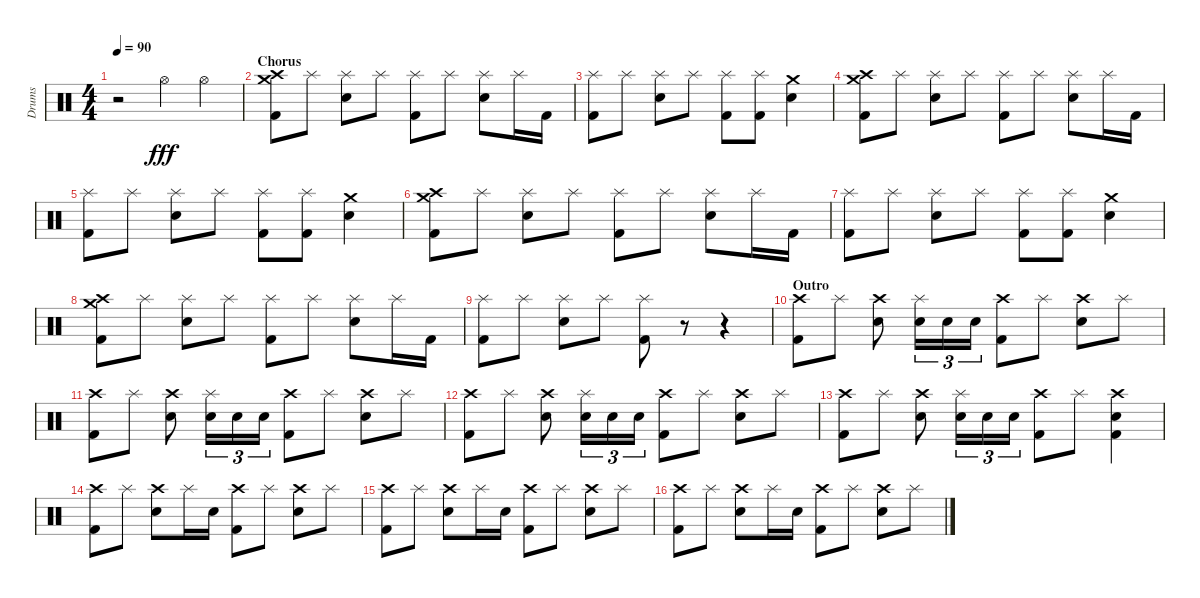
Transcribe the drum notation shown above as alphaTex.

\track ("Drums" "Drums") {instrument percussion}
\staff {score}
\articulation defaults
\ts (4 4)
\tempo 90
\clef neutral
\ks c
r.2{dy fff} "Hi-Hat (open)".4 "Hi-Hat (open)".4 |
\section ("" "Chorus")
("Crash high (hit)" "Crash medium (hit)" "Kick (hit) 2").8 "Splash (hit)".8 ("Splash (hit)" "Electric Snare (hit)").8 "Splash (hit)".8 ("Splash (hit)" "Kick (hit) 2").8 "Splash (hit)".8 ("Splash (hit)" "Electric Snare (hit)").8 "Splash (hit)".16 "Kick (hit) 2".16 |
("Splash (hit)" "Kick (hit) 2").8 "Splash (hit)".8 ("Splash (hit)" "Electric Snare (hit)").8 "Splash (hit)".8 ("Splash (hit)" "Kick (hit) 2").8 ("Splash (hit)" "Kick (hit) 2").8 ("Crash medium (hit)" "Electric Snare (hit)").4 |
("Crash high (hit)" "Crash medium (hit)" "Kick (hit) 2").8 "Splash (hit)".8 ("Splash (hit)" "Electric Snare (hit)").8 "Splash (hit)".8 ("Splash (hit)" "Kick (hit) 2").8 "Splash (hit)".8 ("Splash (hit)" "Electric Snare (hit)").8 "Splash (hit)".16 "Kick (hit) 2".16 |
("Splash (hit)" "Kick (hit) 2").8 "Splash (hit)".8 ("Splash (hit)" "Electric Snare (hit)").8 "Splash (hit)".8 ("Splash (hit)" "Kick (hit) 2").8 ("Splash (hit)" "Kick (hit) 2").8 ("Crash medium (hit)" "Electric Snare (hit)").4 |
("Crash high (hit)" "Crash medium (hit)" "Kick (hit) 2").8 "Splash (hit)".8 ("Splash (hit)" "Electric Snare (hit)").8 "Splash (hit)".8 ("Splash (hit)" "Kick (hit) 2").8 "Splash (hit)".8 ("Splash (hit)" "Electric Snare (hit)").8 "Splash (hit)".16 "Kick (hit) 2".16 |
("Splash (hit)" "Kick (hit) 2").8 "Splash (hit)".8 ("Splash (hit)" "Electric Snare (hit)").8 "Splash (hit)".8 ("Splash (hit)" "Kick (hit) 2").8 ("Splash (hit)" "Kick (hit) 2").8 ("Crash medium (hit)" "Electric Snare (hit)").4 |
("Crash high (hit)" "Crash medium (hit)" "Kick (hit) 2").8 "Splash (hit)".8 ("Splash (hit)" "Electric Snare (hit)").8 "Splash (hit)".8 ("Splash (hit)" "Kick (hit) 2").8 "Splash (hit)".8 ("Splash (hit)" "Electric Snare (hit)").8 "Splash (hit)".16 "Kick (hit) 2".16 |
("Splash (hit)" "Kick (hit) 2").8 "Splash (hit)".8 ("Splash (hit)" "Electric Snare (hit)").8 "Splash (hit)".8 ("Splash (hit)" "Kick (hit) 2").8 r.8 r.4 |
\section ("" "Outro")
("Crash high (hit)" "Kick (hit) 2").8 "Splash (hit)".8 ("Crash high (hit)" "Electric Snare (hit)").8 ("Splash (hit)" "Electric Snare (hit)").16{tu (3 2)} "Electric Snare (hit)".16{tu (3 2)} "Electric Snare (hit)".16{tu (3 2)} ("Crash high (hit)" "Kick (hit) 2").8 "Splash (hit)".8 ("Crash high (hit)" "Electric Snare (hit)").8 "Splash (hit)".8 |
("Crash high (hit)" "Kick (hit) 2").8 "Splash (hit)".8 ("Crash high (hit)" "Electric Snare (hit)").8 ("Splash (hit)" "Electric Snare (hit)").16{tu (3 2)} "Electric Snare (hit)".16{tu (3 2)} "Electric Snare (hit)".16{tu (3 2)} ("Crash high (hit)" "Kick (hit) 2").8 "Splash (hit)".8 ("Crash high (hit)" "Electric Snare (hit)").8 "Splash (hit)".8 |
("Crash high (hit)" "Kick (hit) 2").8 "Splash (hit)".8 ("Crash high (hit)" "Electric Snare (hit)").8 ("Splash (hit)" "Electric Snare (hit)").16{tu (3 2)} "Electric Snare (hit)".16{tu (3 2)} "Electric Snare (hit)".16{tu (3 2)} ("Crash high (hit)" "Kick (hit) 2").8 "Splash (hit)".8 ("Crash high (hit)" "Electric Snare (hit)").8 "Splash (hit)".8 |
("Crash high (hit)" "Kick (hit) 2").8 "Splash (hit)".8 ("Crash high (hit)" "Electric Snare (hit)").8 ("Splash (hit)" "Electric Snare (hit)").16{tu (3 2)} "Electric Snare (hit)".16{tu (3 2)} "Electric Snare (hit)".16{tu (3 2)} ("Crash high (hit)" "Kick (hit) 2").8 "Splash (hit)".8 ("Crash high (hit)" "Electric Snare (hit)" "Kick (hit) 2").4 |
("Crash high (hit)" "Kick (hit) 2").8 "Splash (hit)".8 ("Crash high (hit)" "Electric Snare (hit)").8 "Splash (hit)".16 "Electric Snare (hit)".16 ("Crash high (hit)" "Kick (hit) 2").8 "Splash (hit)".8 ("Crash high (hit)" "Electric Snare (hit)").8 "Splash (hit)".8 |
("Crash high (hit)" "Kick (hit) 2").8 "Splash (hit)".8 ("Crash high (hit)" "Electric Snare (hit)").8 "Splash (hit)".16 "Electric Snare (hit)".16 ("Crash high (hit)" "Kick (hit) 2").8 "Splash (hit)".8 ("Crash high (hit)" "Electric Snare (hit)").8 "Splash (hit)".8 |
("Crash high (hit)" "Kick (hit) 2").8 "Splash (hit)".8 ("Crash high (hit)" "Electric Snare (hit)").8 "Splash (hit)".16 "Electric Snare (hit)".16 ("Crash high (hit)" "Kick (hit) 2").8 "Splash (hit)".8 ("Crash high (hit)" "Electric Snare (hit)").8 "Splash (hit)".8
